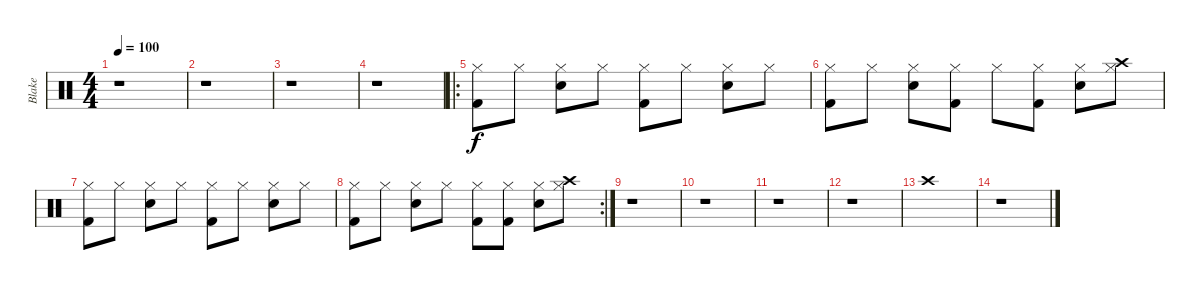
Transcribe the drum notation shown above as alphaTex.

\track ("Blake" "Blake") {instrument percussion}
\staff {score}
\articulation defaults
\ts (4 4)
\tempo 100
\clef neutral
\ks c
r.1{dy f} |
r.1 |
r.1 |
r.1 |
\ro
("Hi-Hat (closed)" "Kick (hit) 2").8 "Hi-Hat (closed)".8 ("Hi-Hat (closed)" "Snare (hit) 2").8 "Hi-Hat (closed)".8 ("Hi-Hat (closed)" "Kick (hit) 2").8 "Hi-Hat (closed)".8 ("Hi-Hat (closed)" "Snare (hit) 2").8 "Hi-Hat (closed)".8 |
("Hi-Hat (closed)" "Kick (hit) 2").8 "Hi-Hat (closed)".8 ("Hi-Hat (closed)" "Snare (hit) 2").8 ("Hi-Hat (closed)" "Kick (hit) 2").8 "Hi-Hat (closed)".8 ("Hi-Hat (closed)" "Kick (hit) 2").8 ("Hi-Hat (closed)" "Snare (hit) 2").8 ("Hi-Hat (closed)" "Crash high (hit)").8 |
("Hi-Hat (closed)" "Kick (hit) 2").8 "Hi-Hat (closed)".8 ("Hi-Hat (closed)" "Snare (hit) 2").8 "Hi-Hat (closed)".8 ("Hi-Hat (closed)" "Kick (hit) 2").8 "Hi-Hat (closed)".8 ("Hi-Hat (closed)" "Snare (hit) 2").8 "Hi-Hat (closed)".8 |
\rc 2
("Hi-Hat (closed)" "Kick (hit) 2").8 "Hi-Hat (closed)".8 ("Hi-Hat (closed)" "Snare (hit) 2").8 "Hi-Hat (closed)".8 ("Hi-Hat (closed)" "Kick (hit) 2").8 ("Hi-Hat (closed)" "Kick (hit) 2").8 ("Hi-Hat (closed)" "Snare (hit) 2").8 ("Hi-Hat (closed)" "Crash high (hit)").8 |
r.1 |
r.1 |
r.1 |
r.1 |
"Crash high (hit)".1 |
r.1
